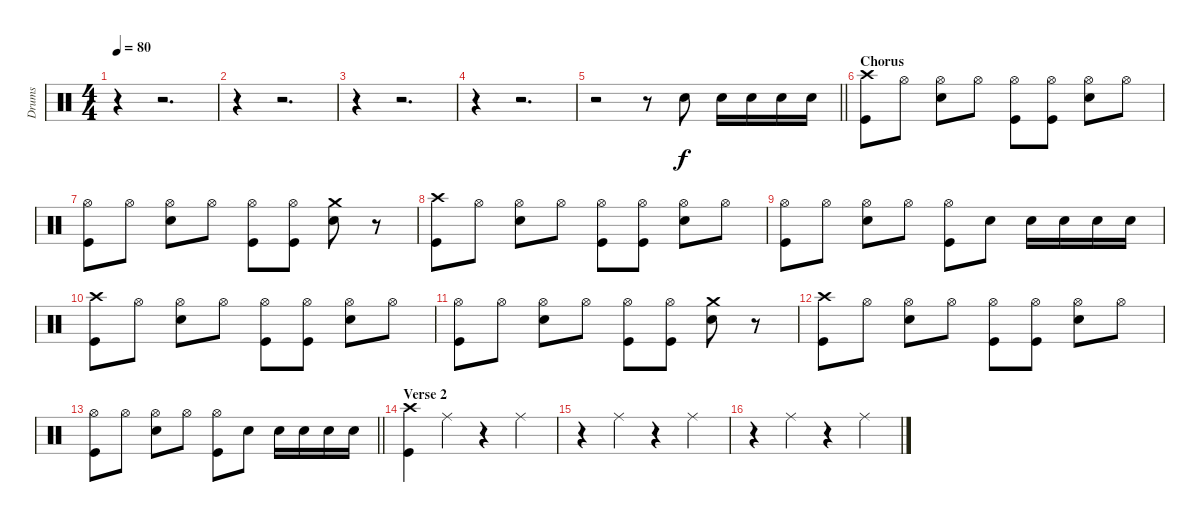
\track ("Drums" "Drums") {instrument percussion}
\staff {score}
\articulation defaults
\ts (4 4)
\tempo 80
\clef neutral
\ks c
r.4{dy f} r.2{d} |
r.4 r.2{d} |
r.4 r.2{d} |
r.4 r.2{d} |
\barLineRight lightlight
r.2 r.8 "Snare (hit) 2".8 "Snare (hit) 2".16 "Snare (hit) 2".16 "Snare (hit) 2".16 "Snare (hit) 2".16 |
\section ("" "Chorus")
("Crash high (hit)" "Kick (hit)").8 "Hi-Hat (open)".8 ("Hi-Hat (open)" "Snare (hit) 2").8 "Hi-Hat (open)".8 ("Hi-Hat (open)" "Kick (hit)").8 ("Hi-Hat (open)" "Kick (hit)").8 ("Hi-Hat (open)" "Snare (hit) 2").8 "Hi-Hat (open)".8 |
("Kick (hit)" "Hi-Hat (open)").8 "Hi-Hat (open)".8 ("Hi-Hat (open)" "Snare (hit) 2").8 "Hi-Hat (open)".8 ("Hi-Hat (open)" "Kick (hit)").8 ("Hi-Hat (open)" "Kick (hit)").8 ("Snare (hit) 2" "Crash medium (hit)").8 r.8 |
("Crash high (hit)" "Kick (hit)").8 "Hi-Hat (open)".8 ("Hi-Hat (open)" "Snare (hit) 2").8 "Hi-Hat (open)".8 ("Hi-Hat (open)" "Kick (hit)").8 ("Hi-Hat (open)" "Kick (hit)").8 ("Hi-Hat (open)" "Snare (hit) 2").8 "Hi-Hat (open)".8 |
("Kick (hit)" "Hi-Hat (open)").8 "Hi-Hat (open)".8 ("Hi-Hat (open)" "Snare (hit) 2").8 "Hi-Hat (open)".8 ("Hi-Hat (open)" "Kick (hit)").8 "Snare (hit) 2".8 "Snare (hit) 2".16 "Snare (hit) 2".16 "Snare (hit) 2".16 "Snare (hit) 2".16 |
("Crash high (hit)" "Kick (hit)").8 "Hi-Hat (open)".8 ("Hi-Hat (open)" "Snare (hit) 2").8 "Hi-Hat (open)".8 ("Hi-Hat (open)" "Kick (hit)").8 ("Hi-Hat (open)" "Kick (hit)").8 ("Hi-Hat (open)" "Snare (hit) 2").8 "Hi-Hat (open)".8 |
("Kick (hit)" "Hi-Hat (open)").8 "Hi-Hat (open)".8 ("Hi-Hat (open)" "Snare (hit) 2").8 "Hi-Hat (open)".8 ("Hi-Hat (open)" "Kick (hit)").8 ("Hi-Hat (open)" "Kick (hit)").8 ("Snare (hit) 2" "Crash medium (hit)").8 r.8 |
("Crash high (hit)" "Kick (hit)").8 "Hi-Hat (open)".8 ("Hi-Hat (open)" "Snare (hit) 2").8 "Hi-Hat (open)".8 ("Hi-Hat (open)" "Kick (hit)").8 ("Hi-Hat (open)" "Kick (hit)").8 ("Hi-Hat (open)" "Snare (hit) 2").8 "Hi-Hat (open)".8 |
\barLineRight lightlight
("Kick (hit)" "Hi-Hat (open)").8 "Hi-Hat (open)".8 ("Hi-Hat (open)" "Snare (hit) 2").8 "Hi-Hat (open)".8 ("Hi-Hat (open)" "Kick (hit)").8 "Snare (hit) 2".8 "Snare (hit) 2".16 "Snare (hit) 2".16 "Snare (hit) 2".16 "Snare (hit) 2".16 |
\section ("" "Verse 2")
("Kick (hit)" "Crash high (hit)").4 "Ride (middle)".4 r.4 "Ride (middle)".4 |
r.4 "Ride (middle)".4 r.4 "Ride (middle)".4 |
r.4 "Ride (middle)".4 r.4 "Ride (middle)".4
